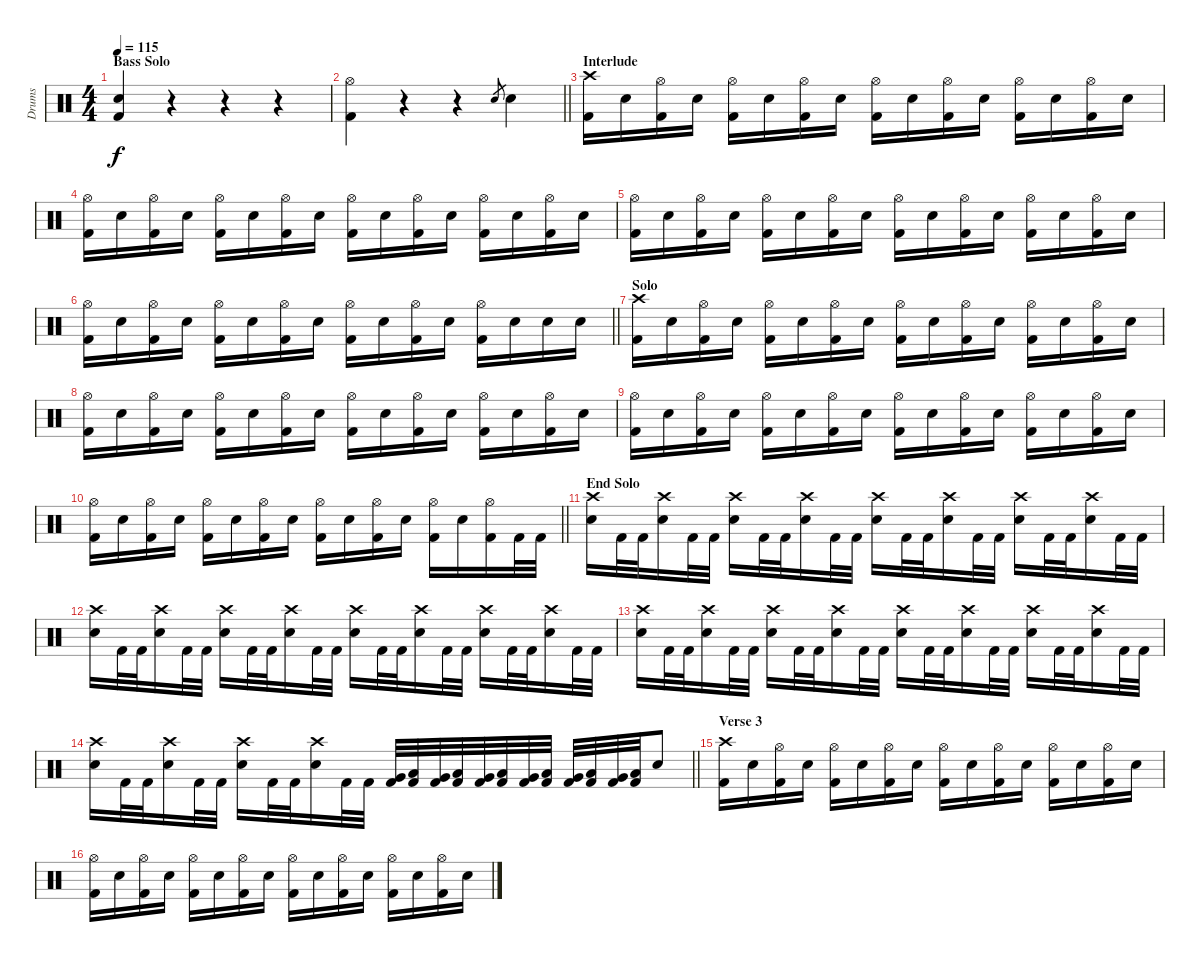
\track ("Drums" "Drums") {instrument percussion}
\staff {score}
\articulation defaults
\ts (4 4)
\section ("" "Bass Solo")
\tempo 115
\clef neutral
\ks c
("Electric Snare (hit)" "Kick (hit) 2").4{dy f} r.4 r.4 r.4 |
\barLineRight lightlight
("Hi-Hat (open)" "Kick (hit) 2").4 r.4 r.4 "Electric Snare (hit)".8{gr} "Electric Snare (hit)".4 |
\section ("" "Interlude")
("Crash high (hit)" "Kick (hit) 2").16 "Electric Snare (hit)".16 ("Hi-Hat (open)" "Kick (hit) 2").16 "Electric Snare (hit)".16 ("Hi-Hat (open)" "Kick (hit) 2").16 "Electric Snare (hit)".16 ("Hi-Hat (open)" "Kick (hit) 2").16 "Electric Snare (hit)".16 ("Hi-Hat (open)" "Kick (hit) 2").16 "Electric Snare (hit)".16 ("Hi-Hat (open)" "Kick (hit) 2").16 "Electric Snare (hit)".16 ("Hi-Hat (open)" "Kick (hit) 2").16 "Electric Snare (hit)".16 ("Hi-Hat (open)" "Kick (hit) 2").16 "Electric Snare (hit)".16 |
("Hi-Hat (open)" "Kick (hit) 2").16 "Electric Snare (hit)".16 ("Hi-Hat (open)" "Kick (hit) 2").16 "Electric Snare (hit)".16 ("Hi-Hat (open)" "Kick (hit) 2").16 "Electric Snare (hit)".16 ("Hi-Hat (open)" "Kick (hit) 2").16 "Electric Snare (hit)".16 ("Hi-Hat (open)" "Kick (hit) 2").16 "Electric Snare (hit)".16 ("Hi-Hat (open)" "Kick (hit) 2").16 "Electric Snare (hit)".16 ("Hi-Hat (open)" "Kick (hit) 2").16 "Electric Snare (hit)".16 ("Hi-Hat (open)" "Kick (hit) 2").16 "Electric Snare (hit)".16 |
("Hi-Hat (open)" "Kick (hit) 2").16 "Electric Snare (hit)".16 ("Hi-Hat (open)" "Kick (hit) 2").16 "Electric Snare (hit)".16 ("Hi-Hat (open)" "Kick (hit) 2").16 "Electric Snare (hit)".16 ("Hi-Hat (open)" "Kick (hit) 2").16 "Electric Snare (hit)".16 ("Hi-Hat (open)" "Kick (hit) 2").16 "Electric Snare (hit)".16 ("Hi-Hat (open)" "Kick (hit) 2").16 "Electric Snare (hit)".16 ("Hi-Hat (open)" "Kick (hit) 2").16 "Electric Snare (hit)".16 ("Hi-Hat (open)" "Kick (hit) 2").16 "Electric Snare (hit)".16 |
\barLineRight lightlight
("Hi-Hat (open)" "Kick (hit) 2").16 "Electric Snare (hit)".16 ("Hi-Hat (open)" "Kick (hit) 2").16 "Electric Snare (hit)".16 ("Hi-Hat (open)" "Kick (hit) 2").16 "Electric Snare (hit)".16 ("Hi-Hat (open)" "Kick (hit) 2").16 "Electric Snare (hit)".16 ("Hi-Hat (open)" "Kick (hit) 2").16 "Electric Snare (hit)".16 ("Hi-Hat (open)" "Kick (hit) 2").16 "Electric Snare (hit)".16 ("Hi-Hat (open)" "Kick (hit) 2").16 "Electric Snare (hit)".16 "Electric Snare (hit)".16 "Electric Snare (hit)".16 |
\section ("" "Solo")
("Crash high (hit)" "Kick (hit) 2").16 "Electric Snare (hit)".16 ("Hi-Hat (open)" "Kick (hit) 2").16 "Electric Snare (hit)".16 ("Hi-Hat (open)" "Kick (hit) 2").16 "Electric Snare (hit)".16 ("Hi-Hat (open)" "Kick (hit) 2").16 "Electric Snare (hit)".16 ("Hi-Hat (open)" "Kick (hit) 2").16 "Electric Snare (hit)".16 ("Hi-Hat (open)" "Kick (hit) 2").16 "Electric Snare (hit)".16 ("Hi-Hat (open)" "Kick (hit) 2").16 "Electric Snare (hit)".16 ("Hi-Hat (open)" "Kick (hit) 2").16 "Electric Snare (hit)".16 |
("Hi-Hat (open)" "Kick (hit) 2").16 "Electric Snare (hit)".16 ("Hi-Hat (open)" "Kick (hit) 2").16 "Electric Snare (hit)".16 ("Hi-Hat (open)" "Kick (hit) 2").16 "Electric Snare (hit)".16 ("Hi-Hat (open)" "Kick (hit) 2").16 "Electric Snare (hit)".16 ("Hi-Hat (open)" "Kick (hit) 2").16 "Electric Snare (hit)".16 ("Hi-Hat (open)" "Kick (hit) 2").16 "Electric Snare (hit)".16 ("Hi-Hat (open)" "Kick (hit) 2").16 "Electric Snare (hit)".16 ("Hi-Hat (open)" "Kick (hit) 2").16 "Electric Snare (hit)".16 |
("Hi-Hat (open)" "Kick (hit) 2").16 "Electric Snare (hit)".16 ("Hi-Hat (open)" "Kick (hit) 2").16 "Electric Snare (hit)".16 ("Hi-Hat (open)" "Kick (hit) 2").16 "Electric Snare (hit)".16 ("Hi-Hat (open)" "Kick (hit) 2").16 "Electric Snare (hit)".16 ("Hi-Hat (open)" "Kick (hit) 2").16 "Electric Snare (hit)".16 ("Hi-Hat (open)" "Kick (hit) 2").16 "Electric Snare (hit)".16 ("Hi-Hat (open)" "Kick (hit) 2").16 "Electric Snare (hit)".16 ("Hi-Hat (open)" "Kick (hit) 2").16 "Electric Snare (hit)".16 |
\barLineRight lightlight
("Hi-Hat (open)" "Kick (hit) 2").16 "Electric Snare (hit)".16 ("Hi-Hat (open)" "Kick (hit) 2").16 "Electric Snare (hit)".16 ("Hi-Hat (open)" "Kick (hit) 2").16 "Electric Snare (hit)".16 ("Hi-Hat (open)" "Kick (hit) 2").16 "Electric Snare (hit)".16 ("Hi-Hat (open)" "Kick (hit) 2").16 "Electric Snare (hit)".16 ("Hi-Hat (open)" "Kick (hit) 2").16 "Electric Snare (hit)".16 ("Hi-Hat (open)" "Kick (hit) 2").16 "Electric Snare (hit)".16 ("Hi-Hat (open)" "Kick (hit) 2").16 "Kick (hit) 2".32 "Kick (hit) 2".32 |
\section ("" "End Solo")
("Crash high (hit)" "Electric Snare (hit)").16 "Kick (hit) 2".32 "Kick (hit) 2".32 ("Crash high (hit)" "Electric Snare (hit)").16 "Kick (hit) 2".32 "Kick (hit) 2".32 ("Crash high (hit)" "Electric Snare (hit)").16 "Kick (hit) 2".32 "Kick (hit) 2".32 ("Crash high (hit)" "Electric Snare (hit)").16 "Kick (hit) 2".32 "Kick (hit) 2".32 ("Crash high (hit)" "Electric Snare (hit)").16 "Kick (hit) 2".32 "Kick (hit) 2".32 ("Crash high (hit)" "Electric Snare (hit)").16 "Kick (hit) 2".32 "Kick (hit) 2".32 ("Crash high (hit)" "Electric Snare (hit)").16 "Kick (hit) 2".32 "Kick (hit) 2".32 ("Crash high (hit)" "Electric Snare (hit)").16 "Kick (hit) 2".32 "Kick (hit) 2".32 |
("Crash high (hit)" "Electric Snare (hit)").16 "Kick (hit) 2".32 "Kick (hit) 2".32 ("Crash high (hit)" "Electric Snare (hit)").16 "Kick (hit) 2".32 "Kick (hit) 2".32 ("Crash high (hit)" "Electric Snare (hit)").16 "Kick (hit) 2".32 "Kick (hit) 2".32 ("Crash high (hit)" "Electric Snare (hit)").16 "Kick (hit) 2".32 "Kick (hit) 2".32 ("Crash high (hit)" "Electric Snare (hit)").16 "Kick (hit) 2".32 "Kick (hit) 2".32 ("Crash high (hit)" "Electric Snare (hit)").16 "Kick (hit) 2".32 "Kick (hit) 2".32 ("Crash high (hit)" "Electric Snare (hit)").16 "Kick (hit) 2".32 "Kick (hit) 2".32 ("Crash high (hit)" "Electric Snare (hit)").16 "Kick (hit) 2".32 "Kick (hit) 2".32 |
("Crash high (hit)" "Electric Snare (hit)").16 "Kick (hit) 2".32 "Kick (hit) 2".32 ("Crash high (hit)" "Electric Snare (hit)").16 "Kick (hit) 2".32 "Kick (hit) 2".32 ("Crash high (hit)" "Electric Snare (hit)").16 "Kick (hit) 2".32 "Kick (hit) 2".32 ("Crash high (hit)" "Electric Snare (hit)").16 "Kick (hit) 2".32 "Kick (hit) 2".32 ("Crash high (hit)" "Electric Snare (hit)").16 "Kick (hit) 2".32 "Kick (hit) 2".32 ("Crash high (hit)" "Electric Snare (hit)").16 "Kick (hit) 2".32 "Kick (hit) 2".32 ("Crash high (hit)" "Electric Snare (hit)").16 "Kick (hit) 2".32 "Kick (hit) 2".32 ("Crash high (hit)" "Electric Snare (hit)").16 "Kick (hit) 2".32 "Kick (hit) 2".32 |
\barLineRight lightlight
("Crash high (hit)" "Electric Snare (hit)").16 "Kick (hit) 2".32 "Kick (hit) 2".32 ("Crash high (hit)" "Electric Snare (hit)").16 "Kick (hit) 2".32 "Kick (hit) 2".32 ("Crash high (hit)" "Electric Snare (hit)").16 "Kick (hit) 2".32 "Kick (hit) 2".32 ("Crash high (hit)" "Electric Snare (hit)").16 "Kick (hit) 2".32 "Kick (hit) 2".32 ("Very Low Tom (hit)" "Kick (hit) 2").32 ("Low Floor Tom (hit)" "Kick (hit) 2").32 ("Very Low Tom (hit)" "Kick (hit) 2").32 ("Low Floor Tom (hit)" "Kick (hit) 2").32 ("Very Low Tom (hit)" "Kick (hit) 2").32 ("Low Floor Tom (hit)" "Kick (hit) 2").32 ("Very Low Tom (hit)" "Kick (hit) 2").32 ("Low Floor Tom (hit)" "Kick (hit) 2").32 ("Very Low Tom (hit)" "Kick (hit) 2").32 ("Low Floor Tom (hit)" "Kick (hit) 2").32 ("Very Low Tom (hit)" "Kick (hit) 2").32 ("Low Floor Tom (hit)" "Kick (hit) 2").32 "Electric Snare (hit)".8 |
\section ("" "Verse 3")
("Crash high (hit)" "Kick (hit) 2").16 "Electric Snare (hit)".16 ("Hi-Hat (open)" "Kick (hit) 2").16 "Electric Snare (hit)".16 ("Hi-Hat (open)" "Kick (hit) 2").16 "Electric Snare (hit)".16 ("Hi-Hat (open)" "Kick (hit) 2").16 "Electric Snare (hit)".16 ("Hi-Hat (open)" "Kick (hit) 2").16 "Electric Snare (hit)".16 ("Hi-Hat (open)" "Kick (hit) 2").16 "Electric Snare (hit)".16 ("Hi-Hat (open)" "Kick (hit) 2").16 "Electric Snare (hit)".16 ("Hi-Hat (open)" "Kick (hit) 2").16 "Electric Snare (hit)".16 |
("Hi-Hat (open)" "Kick (hit) 2").16 "Electric Snare (hit)".16 ("Hi-Hat (open)" "Kick (hit) 2").16 "Electric Snare (hit)".16 ("Hi-Hat (open)" "Kick (hit) 2").16 "Electric Snare (hit)".16 ("Hi-Hat (open)" "Kick (hit) 2").16 "Electric Snare (hit)".16 ("Hi-Hat (open)" "Kick (hit) 2").16 "Electric Snare (hit)".16 ("Hi-Hat (open)" "Kick (hit) 2").16 "Electric Snare (hit)".16 ("Hi-Hat (open)" "Kick (hit) 2").16 "Electric Snare (hit)".16 ("Hi-Hat (open)" "Kick (hit) 2").16 "Electric Snare (hit)".16
